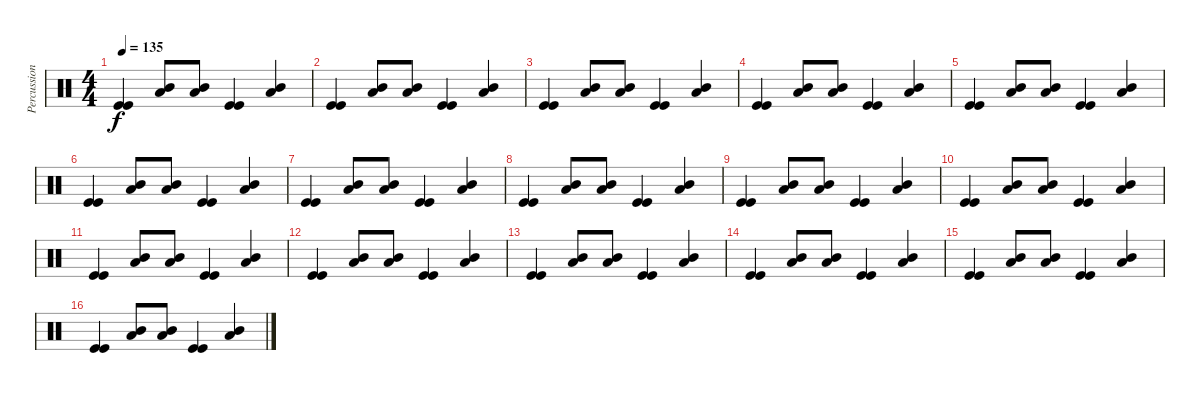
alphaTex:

\track ("Percussions" "Percussion") {instrument percussion}
\staff {score}
\articulation defaults
\ts (4 4)
\tempo 135
\clef neutral
\ks c
("Kick (hit)" "Kick (hit)").4{dy f} ("Low Tom (hit)" "Mid Tom (hit)").8 ("Low Tom (hit)" "Mid Tom (hit)").8 ("Kick (hit)" "Kick (hit)").4 ("Low Tom (hit)" "Mid Tom (hit)").4 |
("Kick (hit)" "Kick (hit)").4 ("Low Tom (hit)" "Mid Tom (hit)").8 ("Low Tom (hit)" "Mid Tom (hit)").8 ("Kick (hit)" "Kick (hit)").4 ("Low Tom (hit)" "Mid Tom (hit)").4 |
("Kick (hit)" "Kick (hit)").4 ("Low Tom (hit)" "Mid Tom (hit)").8 ("Low Tom (hit)" "Mid Tom (hit)").8 ("Kick (hit)" "Kick (hit)").4 ("Low Tom (hit)" "Mid Tom (hit)").4 |
("Kick (hit)" "Kick (hit)").4 ("Low Tom (hit)" "Mid Tom (hit)").8 ("Low Tom (hit)" "Mid Tom (hit)").8 ("Kick (hit)" "Kick (hit)").4 ("Low Tom (hit)" "Mid Tom (hit)").4 |
("Kick (hit)" "Kick (hit)").4 ("Low Tom (hit)" "Mid Tom (hit)").8 ("Low Tom (hit)" "Mid Tom (hit)").8 ("Kick (hit)" "Kick (hit)").4 ("Low Tom (hit)" "Mid Tom (hit)").4 |
("Kick (hit)" "Kick (hit)").4 ("Low Tom (hit)" "Mid Tom (hit)").8 ("Low Tom (hit)" "Mid Tom (hit)").8 ("Kick (hit)" "Kick (hit)").4 ("Low Tom (hit)" "Mid Tom (hit)").4 |
("Kick (hit)" "Kick (hit)").4 ("Low Tom (hit)" "Mid Tom (hit)").8 ("Low Tom (hit)" "Mid Tom (hit)").8 ("Kick (hit)" "Kick (hit)").4 ("Low Tom (hit)" "Mid Tom (hit)").4 |
("Kick (hit)" "Kick (hit)").4 ("Low Tom (hit)" "Mid Tom (hit)").8 ("Low Tom (hit)" "Mid Tom (hit)").8 ("Kick (hit)" "Kick (hit)").4 ("Low Tom (hit)" "Mid Tom (hit)").4 |
("Kick (hit)" "Kick (hit)").4 ("Low Tom (hit)" "Mid Tom (hit)").8 ("Low Tom (hit)" "Mid Tom (hit)").8 ("Kick (hit)" "Kick (hit)").4 ("Low Tom (hit)" "Mid Tom (hit)").4 |
("Kick (hit)" "Kick (hit)").4 ("Low Tom (hit)" "Mid Tom (hit)").8 ("Low Tom (hit)" "Mid Tom (hit)").8 ("Kick (hit)" "Kick (hit)").4 ("Low Tom (hit)" "Mid Tom (hit)").4 |
("Kick (hit)" "Kick (hit)").4 ("Low Tom (hit)" "Mid Tom (hit)").8 ("Low Tom (hit)" "Mid Tom (hit)").8 ("Kick (hit)" "Kick (hit)").4 ("Low Tom (hit)" "Mid Tom (hit)").4 |
("Kick (hit)" "Kick (hit)").4 ("Low Tom (hit)" "Mid Tom (hit)").8 ("Low Tom (hit)" "Mid Tom (hit)").8 ("Kick (hit)" "Kick (hit)").4 ("Low Tom (hit)" "Mid Tom (hit)").4 |
("Kick (hit)" "Kick (hit)").4 ("Low Tom (hit)" "Mid Tom (hit)").8 ("Low Tom (hit)" "Mid Tom (hit)").8 ("Kick (hit)" "Kick (hit)").4 ("Low Tom (hit)" "Mid Tom (hit)").4 |
("Kick (hit)" "Kick (hit)").4 ("Low Tom (hit)" "Mid Tom (hit)").8 ("Low Tom (hit)" "Mid Tom (hit)").8 ("Kick (hit)" "Kick (hit)").4 ("Low Tom (hit)" "Mid Tom (hit)").4 |
("Kick (hit)" "Kick (hit)").4 ("Low Tom (hit)" "Mid Tom (hit)").8 ("Low Tom (hit)" "Mid Tom (hit)").8 ("Kick (hit)" "Kick (hit)").4 ("Low Tom (hit)" "Mid Tom (hit)").4 |
("Kick (hit)" "Kick (hit)").4 ("Low Tom (hit)" "Mid Tom (hit)").8 ("Low Tom (hit)" "Mid Tom (hit)").8 ("Kick (hit)" "Kick (hit)").4 ("Low Tom (hit)" "Mid Tom (hit)").4
